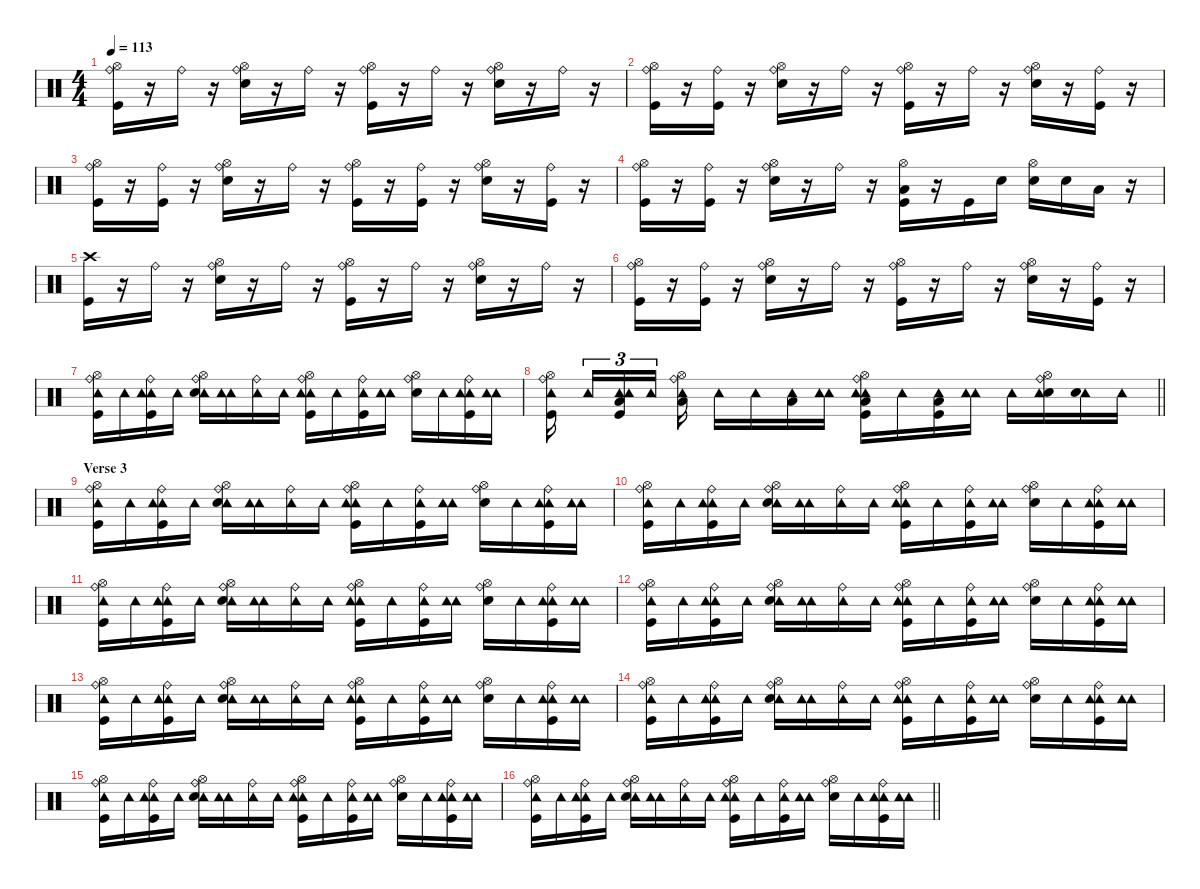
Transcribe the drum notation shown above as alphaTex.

\defaultSystemsLayout 4
\hideDynamics
\bracketExtendMode nobrackets
\singleTrackTrackNamePolicy hidden
\multiTrackTrackNamePolicy hidden
\firstSystemTrackNameMode fullname
\firstSystemTrackNameOrientation horizontal
\otherSystemsTrackNameOrientation horizontal
\track ("Drums" "drm.") {instrument percussion}
\staff {score}
\articulation defaults
\ts (4 4)
\tempo 113
\clef neutral
\ks c
("Kick (hit)" "Hi-Hat (open)" "Ride (bell)").16{dy fff beam Down} r.16{beam Down} "Ride (bell)".16{dy p beam Down} r.16{beam Down} ("Snare (hit) 2" "Hi-Hat (open)" "Ride (bell)").16{dy fff beam Down} r.16{beam Down} "Ride (bell)".16{dy pp beam Down} r.16{beam Down} ("Kick (hit)" "Hi-Hat (open)" "Ride (bell)").16{dy fff beam Down} r.16{beam Down} "Ride (bell)".16{dy p beam Down} r.16{beam Down} ("Snare (hit) 2" "Hi-Hat (open)" "Ride (bell)").16{dy fff beam Down} r.16{beam Down} "Ride (bell)".16{dy p beam Down} r.16{beam Down} |
("Kick (hit)" "Hi-Hat (open)" "Ride (bell)").16{dy fff beam Down} r.16{beam Down} ("Kick (hit)" "Ride (bell)").16{dy ff beam Down} r.16{beam Down} ("Snare (hit) 2" "Hi-Hat (open)" "Ride (bell)").16{dy fff beam Down} r.16{beam Down} "Ride (bell)".16{dy p beam Down} r.16{beam Down} ("Kick (hit)" "Hi-Hat (open)" "Ride (bell)").16{dy fff beam Down} r.16{beam Down} "Ride (bell)".16{dy pp beam Down} r.16{beam Down} ("Snare (hit) 2" "Hi-Hat (open)" "Ride (bell)").16{dy fff beam Down} r.16{beam Down} ("Kick (hit)" "Ride (bell)").16{dy ff beam Down} r.16{beam Down} |
("Kick (hit)" "Hi-Hat (open)" "Ride (bell)").16{dy fff beam Down} r.16{beam Down} ("Kick (hit)" "Ride (bell)").16{dy f beam Down} r.16{beam Down} ("Snare (hit) 2" "Hi-Hat (open)" "Ride (bell)").16{dy fff beam Down} r.16{beam Down} "Ride (bell)".16{dy pp beam Down} r.16{beam Down} ("Kick (hit)" "Hi-Hat (open)" "Ride (bell)").16{dy fff beam Down} r.16{beam Down} ("Kick (hit)" "Ride (bell)").16{dy ff beam Down} r.16{beam Down} ("Snare (hit) 2" "Hi-Hat (open)" "Ride (bell)").16{dy fff beam Down} r.16{beam Down} ("Kick (hit)" "Ride (bell)").16{dy f beam Down} r.16{beam Down} |
("Kick (hit)" "Hi-Hat (open)" "Ride (bell)").16{dy fff beam Down} r.16{beam Down} ("Kick (hit)" "Ride (bell)").16{dy ff beam Down} r.16{beam Down} ("Snare (hit) 2" "Hi-Hat (open)" "Ride (bell)").16{dy fff beam Down} r.16{beam Down} "Ride (bell)".16{dy pp beam Down} r.16{beam Down} ("Kick (hit)" "Low Tom (hit)" "Hi-Hat (open)").16{dy fff beam Down} r.16{beam Down} "Kick (hit)".16{dy ff beam Down} "Snare (hit) 2".16{dy f beam Down} ("Snare (hit) 2" "Hi-Hat (open)").16{dy fff beam Down} "Snare (hit) 2".16{dy ff beam Down} "Low Tom (hit)".16{beam Down} r.16{beam Down} |
("Kick (hit)" "Crash high (hit)").16{dy fff beam Down} r.16{beam Down} "Ride (bell)".16{dy p beam Down} r.16{beam Down} ("Snare (hit) 2" "Hi-Hat (open)" "Ride (bell)").16{dy fff beam Down} r.16{beam Down} "Ride (bell)".16{dy pp beam Down} r.16{beam Down} ("Kick (hit)" "Hi-Hat (open)" "Ride (bell)").16{dy fff beam Down} r.16{beam Down} "Ride (bell)".16{dy p beam Down} r.16{beam Down} ("Snare (hit) 2" "Hi-Hat (open)" "Ride (bell)").16{dy fff beam Down} r.16{beam Down} "Ride (bell)".16{dy p beam Down} r.16{beam Down} |
("Kick (hit)" "Hi-Hat (open)" "Ride (bell)").16{dy fff beam Down} r.16{beam Down} ("Kick (hit)" "Ride (bell)").16{dy ff beam Down} r.16{beam Down} ("Snare (hit) 2" "Hi-Hat (open)" "Ride (bell)").16{dy fff beam Down} r.16{beam Down} "Ride (bell)".16{dy p beam Down} r.16{beam Down} ("Kick (hit)" "Hi-Hat (open)" "Ride (bell)").16{dy fff beam Down} r.16{beam Down} "Ride (bell)".16{dy pp beam Down} r.16{beam Down} ("Snare (hit) 2" "Hi-Hat (open)" "Ride (bell)").16{dy fff beam Down} r.16{beam Down} ("Kick (hit)" "Ride (bell)").16{dy ff beam Down} r.16{beam Down} |
("Kick (hit)" "Hi-Hat (open)" "Ride (bell)" "Tambourine (hit)").16{dy fff beam Down} "Tambourine (hit)".16{dy pp beam Down} ("Tambourine (hit)" "Kick (hit)" "Ride (bell)" "Tambourine (hit)").16{dy p beam Down} "Tambourine (hit)".16{beam Down} ("Tambourine (hit)" "Snare (hit) 2" "Hi-Hat (open)" "Ride (bell)").16{beam Down} ("Tambourine (hit)" "Tambourine (hit)").16{beam Down} ("Tambourine (hit)" "Ride (bell)").16{beam Down} "Tambourine (hit)".16{dy pp beam Down} ("Tambourine (hit)" "Kick (hit)" "Hi-Hat (open)" "Ride (bell)" "Tambourine (hit)").16{dy p beam Down} "Tambourine (hit)".16{beam Down} ("Kick (hit)" "Ride (bell)" "Tambourine (hit)").16{dy ff beam Down} ("Tambourine (hit)" "Tambourine (hit)").16{dy pp beam Down} ("Snare (hit) 2" "Hi-Hat (open)" "Ride (bell)").16{dy fff beam Down} "Tambourine (hit)".16{dy pp beam Down} ("Tambourine (hit)" "Tambourine (hit)" "Kick (hit)" "Ride (bell)").16{beam Down} ("Tambourine (hit)" "Tambourine (hit)").16{dy p beam Down} |
\barLineRight lightlight
("Tambourine (hit)" "Kick (hit)" "Hi-Hat (open)" "Ride (bell)").16{dy f beam Down} "Tambourine (hit)".16{tu (3 2) dy ppp beam Up} ("Tambourine (hit)" "Kick (hit)" "Low Tom (hit)" "Tambourine (hit)").16{tu (3 2) dy pp beam Up} "Tambourine (hit)".16{tu (3 2) beam Up} ("Tambourine (hit)" "Low Tom (hit)" "Hi-Hat (open)" "Ride (bell)").16{dy p beam Down} "Tambourine (hit)".16{beam Down} "Tambourine (hit)".16{beam Down} ("Tambourine (hit)" "Low Tom (hit)").16{beam Down} ("Tambourine (hit)" "Tambourine (hit)").16{beam Down} ("Tambourine (hit)" "Kick (hit)" "Low Tom (hit)" "Hi-Hat (open)" "Ride (bell)" "Tambourine (hit)").16{beam Down} "Tambourine (hit)".16{beam Down} ("Tambourine (hit)" "Kick (hit)" "Low Tom (hit)").16{dy pp beam Down} ("Tambourine (hit)" "Tambourine (hit)").16{dy p beam Down} "Tambourine (hit)".16{beam Down} ("Snare (hit) 2" "Hi-Hat (open)" "Ride (bell)" "Tambourine (hit)").16{dy fff beam Down} ("Tambourine (hit)" "Snare (hit) 2").16{dy p beam Down} "Tambourine (hit)".16{dy pp beam Down} |
\section ("" "Verse 3")
("Kick (hit)" "Hi-Hat (open)" "Ride (bell)" "Tambourine (hit)").16{dy fff beam Down} "Tambourine (hit)".16{dy pp beam Down} ("Tambourine (hit)" "Kick (hit)" "Ride (bell)" "Tambourine (hit)").16{dy p beam Down} "Tambourine (hit)".16{beam Down} ("Tambourine (hit)" "Snare (hit) 2" "Hi-Hat (open)" "Ride (bell)").16{beam Down} ("Tambourine (hit)" "Tambourine (hit)").16{beam Down} ("Tambourine (hit)" "Ride (bell)").16{beam Down} "Tambourine (hit)".16{dy pp beam Down} ("Tambourine (hit)" "Kick (hit)" "Hi-Hat (open)" "Ride (bell)" "Tambourine (hit)").16{dy p beam Down} "Tambourine (hit)".16{beam Down} ("Kick (hit)" "Ride (bell)" "Tambourine (hit)").16{dy ff beam Down} ("Tambourine (hit)" "Tambourine (hit)").16{dy pp beam Down} ("Snare (hit) 2" "Hi-Hat (open)" "Ride (bell)").16{dy fff beam Down} "Tambourine (hit)".16{dy pp beam Down} ("Tambourine (hit)" "Tambourine (hit)" "Kick (hit)" "Ride (bell)").16{beam Down} ("Tambourine (hit)" "Tambourine (hit)").16{dy p beam Down} |
("Kick (hit)" "Hi-Hat (open)" "Ride (bell)" "Tambourine (hit)").16{dy fff beam Down} "Tambourine (hit)".16{dy pp beam Down} ("Tambourine (hit)" "Kick (hit)" "Ride (bell)" "Tambourine (hit)").16{dy p beam Down} "Tambourine (hit)".16{beam Down} ("Tambourine (hit)" "Snare (hit) 2" "Hi-Hat (open)" "Ride (bell)").16{beam Down} ("Tambourine (hit)" "Tambourine (hit)").16{beam Down} ("Tambourine (hit)" "Ride (bell)").16{beam Down} "Tambourine (hit)".16{dy pp beam Down} ("Tambourine (hit)" "Kick (hit)" "Hi-Hat (open)" "Ride (bell)" "Tambourine (hit)").16{dy p beam Down} "Tambourine (hit)".16{beam Down} ("Kick (hit)" "Ride (bell)" "Tambourine (hit)").16{dy ff beam Down} ("Tambourine (hit)" "Tambourine (hit)").16{dy pp beam Down} ("Snare (hit) 2" "Hi-Hat (open)" "Ride (bell)").16{dy fff beam Down} "Tambourine (hit)".16{dy pp beam Down} ("Tambourine (hit)" "Tambourine (hit)" "Kick (hit)" "Ride (bell)").16{beam Down} ("Tambourine (hit)" "Tambourine (hit)").16{dy p beam Down} |
("Kick (hit)" "Hi-Hat (open)" "Ride (bell)" "Tambourine (hit)").16{dy fff beam Down} "Tambourine (hit)".16{dy pp beam Down} ("Tambourine (hit)" "Kick (hit)" "Ride (bell)" "Tambourine (hit)").16{dy p beam Down} "Tambourine (hit)".16{beam Down} ("Tambourine (hit)" "Snare (hit) 2" "Hi-Hat (open)" "Ride (bell)").16{beam Down} ("Tambourine (hit)" "Tambourine (hit)").16{beam Down} ("Tambourine (hit)" "Ride (bell)").16{beam Down} "Tambourine (hit)".16{dy pp beam Down} ("Tambourine (hit)" "Kick (hit)" "Hi-Hat (open)" "Ride (bell)" "Tambourine (hit)").16{dy p beam Down} "Tambourine (hit)".16{beam Down} ("Kick (hit)" "Ride (bell)" "Tambourine (hit)").16{dy ff beam Down} ("Tambourine (hit)" "Tambourine (hit)").16{dy pp beam Down} ("Snare (hit) 2" "Hi-Hat (open)" "Ride (bell)").16{dy fff beam Down} "Tambourine (hit)".16{dy pp beam Down} ("Tambourine (hit)" "Tambourine (hit)" "Kick (hit)" "Ride (bell)").16{beam Down} ("Tambourine (hit)" "Tambourine (hit)").16{dy p beam Down} |
("Kick (hit)" "Hi-Hat (open)" "Ride (bell)" "Tambourine (hit)").16{dy fff beam Down} "Tambourine (hit)".16{dy pp beam Down} ("Tambourine (hit)" "Kick (hit)" "Ride (bell)" "Tambourine (hit)").16{dy p beam Down} "Tambourine (hit)".16{beam Down} ("Tambourine (hit)" "Snare (hit) 2" "Hi-Hat (open)" "Ride (bell)").16{beam Down} ("Tambourine (hit)" "Tambourine (hit)").16{beam Down} ("Tambourine (hit)" "Ride (bell)").16{beam Down} "Tambourine (hit)".16{dy pp beam Down} ("Tambourine (hit)" "Kick (hit)" "Hi-Hat (open)" "Ride (bell)" "Tambourine (hit)").16{dy p beam Down} "Tambourine (hit)".16{beam Down} ("Kick (hit)" "Ride (bell)" "Tambourine (hit)").16{dy ff beam Down} ("Tambourine (hit)" "Tambourine (hit)").16{dy pp beam Down} ("Snare (hit) 2" "Hi-Hat (open)" "Ride (bell)").16{dy fff beam Down} "Tambourine (hit)".16{dy pp beam Down} ("Tambourine (hit)" "Tambourine (hit)" "Kick (hit)" "Ride (bell)").16{beam Down} ("Tambourine (hit)" "Tambourine (hit)").16{dy p beam Down} |
("Kick (hit)" "Hi-Hat (open)" "Ride (bell)" "Tambourine (hit)").16{dy fff beam Down} "Tambourine (hit)".16{dy pp beam Down} ("Tambourine (hit)" "Kick (hit)" "Ride (bell)" "Tambourine (hit)").16{dy p beam Down} "Tambourine (hit)".16{beam Down} ("Tambourine (hit)" "Snare (hit) 2" "Hi-Hat (open)" "Ride (bell)").16{beam Down} ("Tambourine (hit)" "Tambourine (hit)").16{beam Down} ("Tambourine (hit)" "Ride (bell)").16{beam Down} "Tambourine (hit)".16{dy pp beam Down} ("Tambourine (hit)" "Kick (hit)" "Hi-Hat (open)" "Ride (bell)" "Tambourine (hit)").16{dy p beam Down} "Tambourine (hit)".16{beam Down} ("Kick (hit)" "Ride (bell)" "Tambourine (hit)").16{dy ff beam Down} ("Tambourine (hit)" "Tambourine (hit)").16{dy pp beam Down} ("Snare (hit) 2" "Hi-Hat (open)" "Ride (bell)").16{dy fff beam Down} "Tambourine (hit)".16{dy pp beam Down} ("Tambourine (hit)" "Tambourine (hit)" "Kick (hit)" "Ride (bell)").16{beam Down} ("Tambourine (hit)" "Tambourine (hit)").16{dy p beam Down} |
("Kick (hit)" "Hi-Hat (open)" "Ride (bell)" "Tambourine (hit)").16{dy fff beam Down} "Tambourine (hit)".16{dy pp beam Down} ("Tambourine (hit)" "Kick (hit)" "Ride (bell)" "Tambourine (hit)").16{dy p beam Down} "Tambourine (hit)".16{beam Down} ("Tambourine (hit)" "Snare (hit) 2" "Hi-Hat (open)" "Ride (bell)").16{beam Down} ("Tambourine (hit)" "Tambourine (hit)").16{beam Down} ("Tambourine (hit)" "Ride (bell)").16{beam Down} "Tambourine (hit)".16{dy pp beam Down} ("Tambourine (hit)" "Kick (hit)" "Hi-Hat (open)" "Ride (bell)" "Tambourine (hit)").16{dy p beam Down} "Tambourine (hit)".16{beam Down} ("Kick (hit)" "Ride (bell)" "Tambourine (hit)").16{dy ff beam Down} ("Tambourine (hit)" "Tambourine (hit)").16{dy pp beam Down} ("Snare (hit) 2" "Hi-Hat (open)" "Ride (bell)").16{dy fff beam Down} "Tambourine (hit)".16{dy pp beam Down} ("Tambourine (hit)" "Tambourine (hit)" "Kick (hit)" "Ride (bell)").16{beam Down} ("Tambourine (hit)" "Tambourine (hit)").16{dy p beam Down} |
("Kick (hit)" "Hi-Hat (open)" "Ride (bell)" "Tambourine (hit)").16{dy fff beam Down} "Tambourine (hit)".16{dy pp beam Down} ("Tambourine (hit)" "Kick (hit)" "Ride (bell)" "Tambourine (hit)").16{dy p beam Down} "Tambourine (hit)".16{beam Down} ("Tambourine (hit)" "Snare (hit) 2" "Hi-Hat (open)" "Ride (bell)").16{beam Down} ("Tambourine (hit)" "Tambourine (hit)").16{beam Down} ("Tambourine (hit)" "Ride (bell)").16{beam Down} "Tambourine (hit)".16{dy pp beam Down} ("Tambourine (hit)" "Kick (hit)" "Hi-Hat (open)" "Ride (bell)" "Tambourine (hit)").16{dy p beam Down} "Tambourine (hit)".16{beam Down} ("Kick (hit)" "Ride (bell)" "Tambourine (hit)").16{dy ff beam Down} ("Tambourine (hit)" "Tambourine (hit)").16{dy pp beam Down} ("Snare (hit) 2" "Hi-Hat (open)" "Ride (bell)").16{dy fff beam Down} "Tambourine (hit)".16{dy pp beam Down} ("Tambourine (hit)" "Tambourine (hit)" "Kick (hit)" "Ride (bell)").16{beam Down} ("Tambourine (hit)" "Tambourine (hit)").16{dy p beam Down} |
\barLineRight lightlight
("Kick (hit)" "Hi-Hat (open)" "Ride (bell)" "Tambourine (hit)").16{dy fff beam Down} "Tambourine (hit)".16{dy pp beam Down} ("Tambourine (hit)" "Kick (hit)" "Ride (bell)" "Tambourine (hit)").16{dy p beam Down} "Tambourine (hit)".16{beam Down} ("Tambourine (hit)" "Snare (hit) 2" "Hi-Hat (open)" "Ride (bell)").16{beam Down} ("Tambourine (hit)" "Tambourine (hit)").16{beam Down} ("Tambourine (hit)" "Ride (bell)").16{beam Down} "Tambourine (hit)".16{dy pp beam Down} ("Tambourine (hit)" "Kick (hit)" "Hi-Hat (open)" "Ride (bell)" "Tambourine (hit)").16{dy p beam Down} "Tambourine (hit)".16{beam Down} ("Kick (hit)" "Ride (bell)" "Tambourine (hit)").16{dy ff beam Down} ("Tambourine (hit)" "Tambourine (hit)").16{dy pp beam Down} ("Snare (hit) 2" "Hi-Hat (open)" "Ride (bell)").16{dy fff beam Down} "Tambourine (hit)".16{dy pp beam Down} ("Tambourine (hit)" "Tambourine (hit)" "Kick (hit)" "Ride (bell)").16{beam Down} ("Tambourine (hit)" "Tambourine (hit)").16{dy p beam Down}
